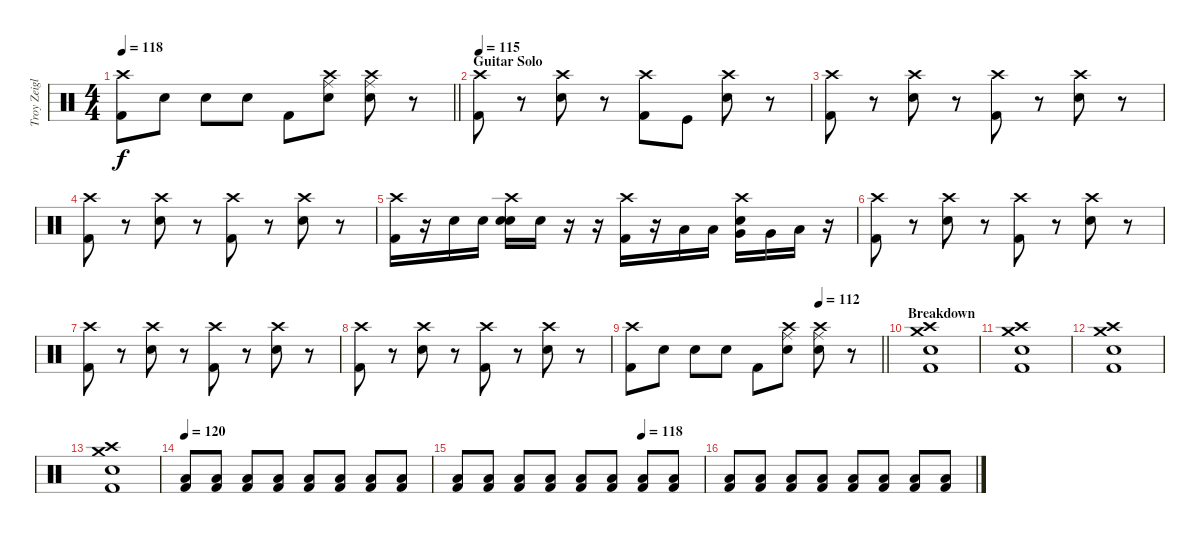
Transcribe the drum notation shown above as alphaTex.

\track ("Troy Zeigler (Drums)" "Troy Zeigl") {instrument percussion}
\staff {score}
\articulation defaults
\ts (4 4)
\tempo 118
\clef neutral
\barLineRight lightlight
\ks c
("Crash high (hit)" "Kick (hit) 2").8{dy f} "Snare (hit) 2".8 "Snare (hit) 2".8 "Snare (hit) 2".8 "Kick (hit) 2".8 ("Crash high (hit)" "Snare (hit) 2" "Ride (middle)").8 ("Crash high (hit)" "Snare (hit) 2" "Ride (middle)").8 r.8 |
\section ("" "Guitar Solo")
\tempo 115
("Crash high (hit)" "Kick (hit) 2").8 r.8 ("Crash high (hit)" "Snare (hit) 2").8 r.8 ("Crash high (hit)" "Kick (hit) 2").8 "Kick (hit)".8 ("Crash high (hit)" "Snare (hit) 2").8 r.8 |
("Crash high (hit)" "Kick (hit) 2").8 r.8 ("Crash high (hit)" "Snare (hit) 2").8 r.8 ("Crash high (hit)" "Kick (hit) 2").8 r.8 ("Crash high (hit)" "Snare (hit) 2").8 r.8 |
("Crash high (hit)" "Kick (hit) 2").8 r.8 ("Crash high (hit)" "Snare (hit) 2").8 r.8 ("Crash high (hit)" "Kick (hit) 2").8 r.8 ("Crash high (hit)" "Snare (hit) 2").8 r.8 |
("Crash high (hit)" "Kick (hit) 2").16 r.16 "Snare (hit) 2".16 "Snare (hit) 2".16 ("Crash high (hit)" "Snare (hit) 2" "Snare (hit) 2").16 "Snare (hit) 2".16 r.16 r.16 ("Crash high (hit)" "Kick (hit) 2").16 r.16 "Low Tom (hit)".16 "Low Tom (hit)".16 ("Crash high (hit)" "Snare (hit) 2" "Very Low Tom (hit)").16 "Very Low Tom (hit)".16 "Low Floor Tom (hit)".16 r.16 |
("Crash high (hit)" "Kick (hit) 2").8 r.8 ("Crash high (hit)" "Snare (hit) 2").8 r.8 ("Crash high (hit)" "Kick (hit) 2").8 r.8 ("Crash high (hit)" "Snare (hit) 2").8 r.8 |
("Crash high (hit)" "Kick (hit) 2").8 r.8 ("Crash high (hit)" "Snare (hit) 2").8 r.8 ("Crash high (hit)" "Kick (hit) 2").8 r.8 ("Crash high (hit)" "Snare (hit) 2").8 r.8 |
("Crash high (hit)" "Kick (hit) 2").8 r.8 ("Crash high (hit)" "Snare (hit) 2").8 r.8 ("Crash high (hit)" "Kick (hit) 2").8 r.8 ("Crash high (hit)" "Snare (hit) 2").8 r.8 |
\tempo (112 0.75)
\barLineRight lightlight
("Crash high (hit)" "Kick (hit) 2").8 "Snare (hit) 2".8 "Snare (hit) 2".8 "Snare (hit) 2".8 "Kick (hit) 2".8 ("Crash high (hit)" "Snare (hit) 2" "Ride (middle)").8 ("Crash high (hit)" "Snare (hit) 2" "Ride (middle)").8 r.8 |
\section ("" "Breakdown")
("Crash high (hit)" "Kick (hit) 2" "Snare (hit) 2" "Crash medium (hit)").1 |
("Crash high (hit)" "Kick (hit) 2" "Snare (hit) 2" "Crash medium (hit)").1 |
("Crash high (hit)" "Kick (hit) 2" "Snare (hit) 2" "Crash medium (hit)").1 |
("Crash high (hit)" "Kick (hit) 2" "Snare (hit) 2" "Crash medium (hit)").1 |
\tempo 115
\tempo 120
("Kick (hit) 2" "Low Floor Tom (hit)").8 ("Kick (hit) 2" "Low Floor Tom (hit)").8 ("Kick (hit) 2" "Low Floor Tom (hit)").8 ("Kick (hit) 2" "Low Floor Tom (hit)").8 ("Kick (hit) 2" "Low Floor Tom (hit)").8 ("Kick (hit) 2" "Low Floor Tom (hit)").8 ("Kick (hit) 2" "Low Floor Tom (hit)").8 ("Kick (hit) 2" "Low Floor Tom (hit)").8 |
\tempo (118 0.75)
("Kick (hit) 2" "Low Floor Tom (hit)").8 ("Kick (hit) 2" "Low Floor Tom (hit)").8 ("Kick (hit) 2" "Low Floor Tom (hit)").8 ("Kick (hit) 2" "Low Floor Tom (hit)").8 ("Kick (hit) 2" "Low Floor Tom (hit)").8 ("Kick (hit) 2" "Low Floor Tom (hit)").8 ("Kick (hit) 2" "Low Floor Tom (hit)").8 ("Kick (hit) 2" "Low Floor Tom (hit)").8 |
("Kick (hit) 2" "Low Floor Tom (hit)").8 ("Kick (hit) 2" "Low Floor Tom (hit)").8 ("Kick (hit) 2" "Low Floor Tom (hit)").8 ("Kick (hit) 2" "Low Floor Tom (hit)").8 ("Kick (hit) 2" "Low Floor Tom (hit)").8 ("Kick (hit) 2" "Low Floor Tom (hit)").8 ("Kick (hit) 2" "Low Floor Tom (hit)").8 ("Kick (hit) 2" "Low Floor Tom (hit)").8
